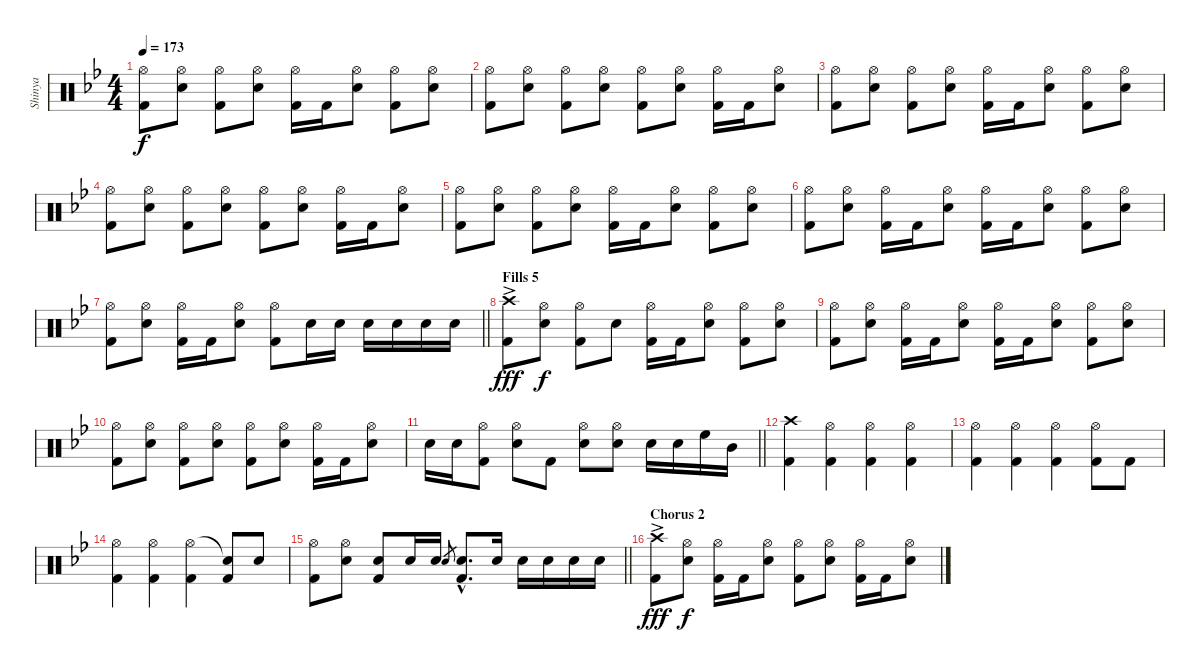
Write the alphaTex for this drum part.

\track ("Shinya" "Shinya") {instrument percussion}
\staff {score}
\articulation defaults
\ts (4 4)
\tempo 173
\clef neutral
\ks bb
("Hi-Hat (open)" "Kick (hit) 2").8{dy f} ("Hi-Hat (open)" "Snare (hit) 2").8 ("Hi-Hat (open)" "Kick (hit) 2").8 ("Hi-Hat (open)" "Snare (hit) 2").8 ("Hi-Hat (open)" "Kick (hit) 2").16 "Kick (hit) 2".16 ("Hi-Hat (open)" "Snare (hit) 2").8 ("Hi-Hat (open)" "Kick (hit) 2").8 ("Hi-Hat (open)" "Snare (hit) 2").8 |
("Hi-Hat (open)" "Kick (hit) 2").8 ("Hi-Hat (open)" "Snare (hit) 2").8 ("Hi-Hat (open)" "Kick (hit) 2").8 ("Hi-Hat (open)" "Snare (hit) 2").8 ("Hi-Hat (open)" "Kick (hit) 2").8 ("Hi-Hat (open)" "Snare (hit) 2").8 ("Hi-Hat (open)" "Kick (hit) 2").16 "Kick (hit) 2".16 ("Hi-Hat (open)" "Snare (hit) 2").8 |
("Hi-Hat (open)" "Kick (hit) 2").8 ("Hi-Hat (open)" "Snare (hit) 2").8 ("Hi-Hat (open)" "Kick (hit) 2").8 ("Hi-Hat (open)" "Snare (hit) 2").8 ("Hi-Hat (open)" "Kick (hit) 2").16 "Kick (hit) 2".16 ("Hi-Hat (open)" "Snare (hit) 2").8 ("Hi-Hat (open)" "Kick (hit) 2").8 ("Hi-Hat (open)" "Snare (hit) 2").8 |
("Hi-Hat (open)" "Kick (hit) 2").8 ("Hi-Hat (open)" "Snare (hit) 2").8 ("Hi-Hat (open)" "Kick (hit) 2").8 ("Hi-Hat (open)" "Snare (hit) 2").8 ("Hi-Hat (open)" "Kick (hit) 2").8 ("Hi-Hat (open)" "Snare (hit) 2").8 ("Hi-Hat (open)" "Kick (hit) 2").16 "Kick (hit) 2".16 ("Hi-Hat (open)" "Snare (hit) 2").8 |
("Hi-Hat (open)" "Kick (hit) 2").8 ("Hi-Hat (open)" "Snare (hit) 2").8 ("Hi-Hat (open)" "Kick (hit) 2").8 ("Hi-Hat (open)" "Snare (hit) 2").8 ("Hi-Hat (open)" "Kick (hit) 2").16 "Kick (hit) 2".16 ("Hi-Hat (open)" "Snare (hit) 2").8 ("Hi-Hat (open)" "Kick (hit) 2").8 ("Hi-Hat (open)" "Snare (hit) 2").8 |
("Hi-Hat (open)" "Kick (hit) 2").8 ("Hi-Hat (open)" "Snare (hit) 2").8 ("Hi-Hat (open)" "Kick (hit) 2").16 "Kick (hit) 2".16 ("Hi-Hat (open)" "Snare (hit) 2").8 ("Hi-Hat (open)" "Kick (hit) 2").16 "Kick (hit) 2".16 ("Hi-Hat (open)" "Snare (hit) 2").8 ("Hi-Hat (open)" "Kick (hit) 2").8 ("Hi-Hat (open)" "Snare (hit) 2").8 |
\barLineRight lightlight
("Hi-Hat (open)" "Kick (hit) 2").8 ("Hi-Hat (open)" "Snare (hit) 2").8 ("Hi-Hat (open)" "Kick (hit) 2").16 "Kick (hit) 2".16 ("Hi-Hat (open)" "Snare (hit) 2").8 ("Hi-Hat (open)" "Kick (hit) 2").8 "Snare (hit) 2".16 "Snare (hit) 2".16 "Snare (hit) 2".16 "Snare (hit) 2".16 "Snare (hit) 2".16 "Snare (hit) 2".16 |
\section ("" "Fills 5")
("Crash high (hit)"{ac} "Kick (hit) 2").8{dy fff} ("Hi-Hat (open)" "Snare (hit) 2").8{dy f} ("Hi-Hat (open)" "Kick (hit) 2").8 "Snare (hit) 2".8 ("Hi-Hat (open)" "Kick (hit) 2").16 "Kick (hit) 2".16 ("Hi-Hat (open)" "Snare (hit) 2").8 ("Hi-Hat (open)" "Kick (hit) 2").8 ("Hi-Hat (open)" "Snare (hit) 2").8 |
("Hi-Hat (open)" "Kick (hit) 2").8 ("Hi-Hat (open)" "Snare (hit) 2").8 ("Hi-Hat (open)" "Kick (hit) 2").16 "Kick (hit) 2".16 ("Hi-Hat (open)" "Snare (hit) 2").8 ("Hi-Hat (open)" "Kick (hit) 2").16 "Kick (hit) 2".16 ("Hi-Hat (open)" "Snare (hit) 2").8 ("Hi-Hat (open)" "Kick (hit) 2").8 ("Hi-Hat (open)" "Snare (hit) 2").8 |
("Hi-Hat (open)" "Kick (hit) 2").8 ("Hi-Hat (open)" "Snare (hit) 2").8 ("Hi-Hat (open)" "Kick (hit) 2").8 ("Hi-Hat (open)" "Snare (hit) 2").8 ("Hi-Hat (open)" "Kick (hit) 2").8 ("Hi-Hat (open)" "Snare (hit) 2").8 ("Hi-Hat (open)" "Kick (hit) 2").16 "Kick (hit) 2".16 ("Hi-Hat (open)" "Snare (hit) 2").8 |
\barLineRight lightlight "Snare (hit) 2".16 "Snare (hit) 2".16
("Hi-Hat (open)" "Kick (hit) 2").8 ("Hi-Hat (open)" "Snare (hit) 2").8 "Kick (hit) 2".8 ("Hi-Hat (open)" "Snare (hit) 2").8 ("Hi-Hat (open)" "Snare (hit) 2").8 "Snare (hit) 2".16 "Snare (hit) 2".16 "High Floor Tom (hit)".16 "Mid Tom (hit)".16 |
("Crash high (hit)" "Kick (hit) 2").4 ("Hi-Hat (open)" "Kick (hit) 2").4 ("Hi-Hat (open)" "Kick (hit) 2").4 ("Hi-Hat (open)" "Kick (hit) 2").4 |
("Hi-Hat (open)" "Kick (hit) 2").4 ("Hi-Hat (open)" "Kick (hit) 2").4 ("Hi-Hat (open)" "Kick (hit) 2").4 ("Hi-Hat (open)" "Kick (hit) 2").8 "Kick (hit) 2".8 |
("Hi-Hat (open)" "Kick (hit) 2").4 ("Hi-Hat (open)" "Kick (hit) 2").4 ("Hi-Hat (open)" "Kick (hit) 2").4 ("Snare (hit)"{t} "Kick (hit) 2").8 "Snare (hit) 2".8 |
\barLineRight lightlight
("Hi-Hat (open)" "Kick (hit) 2").8 ("Hi-Hat (open)" "Snare (hit) 2").8 ("Snare (hit) 2" "Kick (hit) 2").8 "Snare (hit) 2".16 "Snare (hit) 2".16 "Snare (hit) 2".8{gr} ("Snare (hit) 2"{hac} "Kick (hit) 2"{hac}).8{d} "Snare (hit) 2".16 "Snare (hit) 2".16 "Snare (hit) 2".16 "Snare (hit) 2".16 "Snare (hit) 2".16 |
\section ("" "Chorus 2")
("Crash high (hit)"{ac} "Kick (hit) 2").8{dy fff} ("Hi-Hat (open)" "Snare (hit) 2").8{dy f} ("Hi-Hat (open)" "Kick (hit) 2").16 "Kick (hit) 2".16 ("Hi-Hat (open)" "Snare (hit) 2").8 ("Hi-Hat (open)" "Kick (hit) 2").8 ("Hi-Hat (open)" "Snare (hit) 2").8 ("Hi-Hat (open)" "Kick (hit) 2").16 "Kick (hit) 2".16 ("Hi-Hat (open)" "Snare (hit) 2").8
